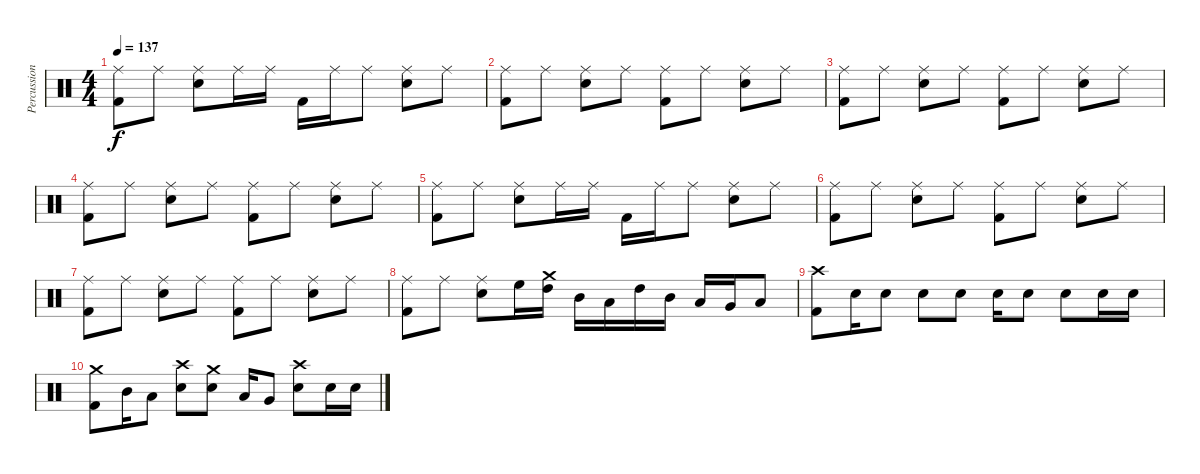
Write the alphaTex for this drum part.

\track ("Percussion" "Percussion") {instrument percussion}
\staff {score}
\articulation defaults
\ts (4 4)
\tempo 137
\clef neutral
\ks c
("Ride (middle)" "Kick (hit) 2").8{dy f} "Ride (middle)".8 ("Ride (middle)" "Snare (hit) 2").8 "Ride (middle)".16 "Ride (middle)".16 "Kick (hit) 2".16 "Ride (middle)".16 "Ride (middle)".8 ("Ride (middle)" "Snare (hit) 2").8 "Ride (middle)".8 |
("Ride (middle)" "Kick (hit) 2").8 "Ride (middle)".8 ("Ride (middle)" "Snare (hit) 2").8 "Ride (middle)".8 ("Ride (middle)" "Kick (hit) 2").8 "Ride (middle)".8 ("Ride (middle)" "Snare (hit) 2").8 "Ride (middle)".8 |
("Ride (middle)" "Kick (hit) 2").8 "Ride (middle)".8 ("Ride (middle)" "Snare (hit) 2").8 "Ride (middle)".8 ("Ride (middle)" "Kick (hit) 2").8 "Ride (middle)".8 ("Ride (middle)" "Snare (hit) 2").8 "Ride (middle)".8 |
("Ride (middle)" "Kick (hit) 2").8 "Ride (middle)".8 ("Ride (middle)" "Snare (hit) 2").8 "Ride (middle)".8 ("Ride (middle)" "Kick (hit) 2").8 "Ride (middle)".8 ("Ride (middle)" "Snare (hit) 2").8 "Ride (middle)".8 |
("Ride (middle)" "Kick (hit) 2").8 "Ride (middle)".8 ("Ride (middle)" "Snare (hit) 2").8 "Ride (middle)".16 "Ride (middle)".16 "Kick (hit) 2".16 "Ride (middle)".16 "Ride (middle)".8 ("Ride (middle)" "Snare (hit) 2").8 "Ride (middle)".8 |
("Ride (middle)" "Kick (hit) 2").8 "Ride (middle)".8 ("Ride (middle)" "Snare (hit) 2").8 "Ride (middle)".8 ("Ride (middle)" "Kick (hit) 2").8 "Ride (middle)".8 ("Ride (middle)" "Snare (hit) 2").8 "Ride (middle)".8 |
("Ride (middle)" "Kick (hit) 2").8 "Ride (middle)".8 ("Ride (middle)" "Snare (hit) 2").8 "Ride (middle)".8 ("Ride (middle)" "Kick (hit) 2").8 "Ride (middle)".8 ("Ride (middle)" "Snare (hit) 2").8 "Ride (middle)".8 |
("Ride (middle)" "Kick (hit) 2").8 "Ride (middle)".8 ("Ride (middle)" "Snare (hit) 2").8 "High Floor Tom (hit)".16 ("Crash medium (hit)" "High Tom (hit)").16 "Mid Tom (hit)".16 "Low Tom (hit)".16 "High Tom (hit)".16 "Mid Tom (hit)".16 "Low Tom (hit)".16 "Very Low Tom (hit)".16 "Low Floor Tom (hit)".8 |
("Crash high (hit)" "Kick (hit) 2").8 "Snare (hit) 2".16 "Snare (hit) 2".8 "Snare (hit) 2".8 "Snare (hit) 2".8 "Snare (hit) 2".16 "Snare (hit) 2".8 "Snare (hit) 2".8 "Snare (hit) 2".16 "Snare (hit) 2".16 |
("Crash medium (hit)" "Kick (hit) 2").8 "Mid Tom (hit)".16 "Low Tom (hit)".8 ("Crash high (hit)" "Snare (hit) 2").8 ("Crash medium (hit)" "Snare (hit) 2").8 "Low Tom (hit)".16 "Very Low Tom (hit)".8 ("Crash high (hit)" "Snare (hit) 2").8 "Snare (hit) 2".16 "Snare (hit) 2".16
